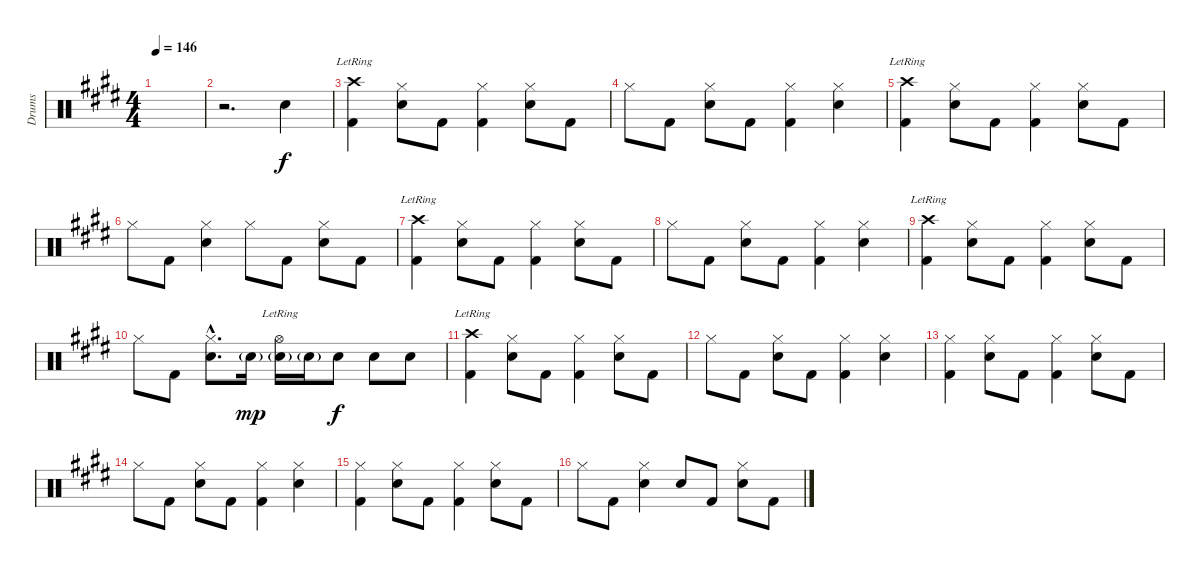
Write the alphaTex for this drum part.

\track ("Drums" "Drums") {instrument percussion}
\staff {score}
\articulation defaults
\ts (4 4)
\tempo 146
\clef neutral
\ks e
|
r.2{d} "Snare (hit) 2".4 |
("Kick (hit) 2" "Crash high (hit)"{lr}).4 ("Snare (hit) 2" "Hi-Hat (closed)").8 "Kick (hit) 2".8 ("Kick (hit) 2" "Hi-Hat (closed)").4 ("Snare (hit) 2" "Hi-Hat (closed)").8 "Kick (hit) 2".8 |
"Hi-Hat (closed)".8 "Kick (hit) 2".8 ("Snare (hit) 2" "Hi-Hat (closed)").8 "Kick (hit) 2".8 ("Kick (hit) 2" "Hi-Hat (closed)").4 ("Snare (hit) 2" "Hi-Hat (closed)").4 |
("Kick (hit) 2" "Crash high (hit)"{lr}).4 ("Snare (hit) 2" "Hi-Hat (closed)").8 "Kick (hit) 2".8 ("Kick (hit) 2" "Hi-Hat (closed)").4 ("Snare (hit) 2" "Hi-Hat (closed)").8 "Kick (hit) 2".8 |
"Hi-Hat (closed)".8 "Kick (hit) 2".8 ("Snare (hit) 2" "Hi-Hat (closed)").4 "Hi-Hat (closed)".8 "Kick (hit) 2".8 ("Snare (hit) 2" "Hi-Hat (closed)").8 "Kick (hit) 2".8 |
("Kick (hit) 2" "Crash high (hit)"{lr}).4 ("Snare (hit) 2" "Hi-Hat (closed)").8 "Kick (hit) 2".8 ("Kick (hit) 2" "Hi-Hat (closed)").4 ("Snare (hit) 2" "Hi-Hat (closed)").8 "Kick (hit) 2".8 |
"Hi-Hat (closed)".8 "Kick (hit) 2".8 ("Snare (hit) 2" "Hi-Hat (closed)").8 "Kick (hit) 2".8 ("Kick (hit) 2" "Hi-Hat (closed)").4 ("Snare (hit) 2" "Hi-Hat (closed)").4 |
("Kick (hit) 2" "Crash high (hit)"{lr}).4 ("Snare (hit) 2" "Hi-Hat (closed)").8 "Kick (hit) 2".8 ("Kick (hit) 2" "Hi-Hat (closed)").4 ("Snare (hit) 2" "Hi-Hat (closed)").8 "Kick (hit) 2".8 |
"Hi-Hat (closed)".8 "Kick (hit) 2".8 ("Snare (hit) 2"{hac} "Hi-Hat (closed)"{hac}).8{d} "Snare (hit) 2"{g}.16{dy mp} ("Snare (hit) 2"{g} "Hi-Hat (open)"{lr}).16 "Snare (hit) 2"{g}.16 "Snare (hit) 2".8{dy f} "Snare (hit) 2".8 "Snare (hit) 2".8 |
("Kick (hit) 2" "Crash high (hit)"{lr}).4 ("Snare (hit) 2" "Hi-Hat (closed)").8 "Kick (hit) 2".8 ("Kick (hit) 2" "Hi-Hat (closed)").4 ("Snare (hit) 2" "Hi-Hat (closed)").8 "Kick (hit) 2".8 |
"Hi-Hat (closed)".8 "Kick (hit) 2".8 ("Snare (hit) 2" "Hi-Hat (closed)").8 "Kick (hit) 2".8 ("Kick (hit) 2" "Hi-Hat (closed)").4 ("Snare (hit) 2" "Hi-Hat (closed)").4 |
("Kick (hit) 2" "Hi-Hat (closed)").4 ("Snare (hit) 2" "Hi-Hat (closed)").8 "Kick (hit) 2".8 ("Kick (hit) 2" "Hi-Hat (closed)").4 ("Snare (hit) 2" "Hi-Hat (closed)").8 "Kick (hit) 2".8 |
"Hi-Hat (closed)".8 "Kick (hit) 2".8 ("Snare (hit) 2" "Hi-Hat (closed)").8 "Kick (hit) 2".8 ("Kick (hit) 2" "Hi-Hat (closed)").4 ("Snare (hit) 2" "Hi-Hat (closed)").4 |
("Kick (hit) 2" "Hi-Hat (closed)").4 ("Snare (hit) 2" "Hi-Hat (closed)").8 "Kick (hit) 2".8 ("Kick (hit) 2" "Hi-Hat (closed)").4 ("Snare (hit) 2" "Hi-Hat (closed)").8 "Kick (hit) 2".8 |
"Hi-Hat (closed)".8 "Kick (hit) 2".8 ("Snare (hit) 2" "Hi-Hat (closed)").4 "Snare (hit) 2".8 "Kick (hit) 2".8 ("Snare (hit) 2" "Hi-Hat (closed)").8 "Kick (hit) 2".8
